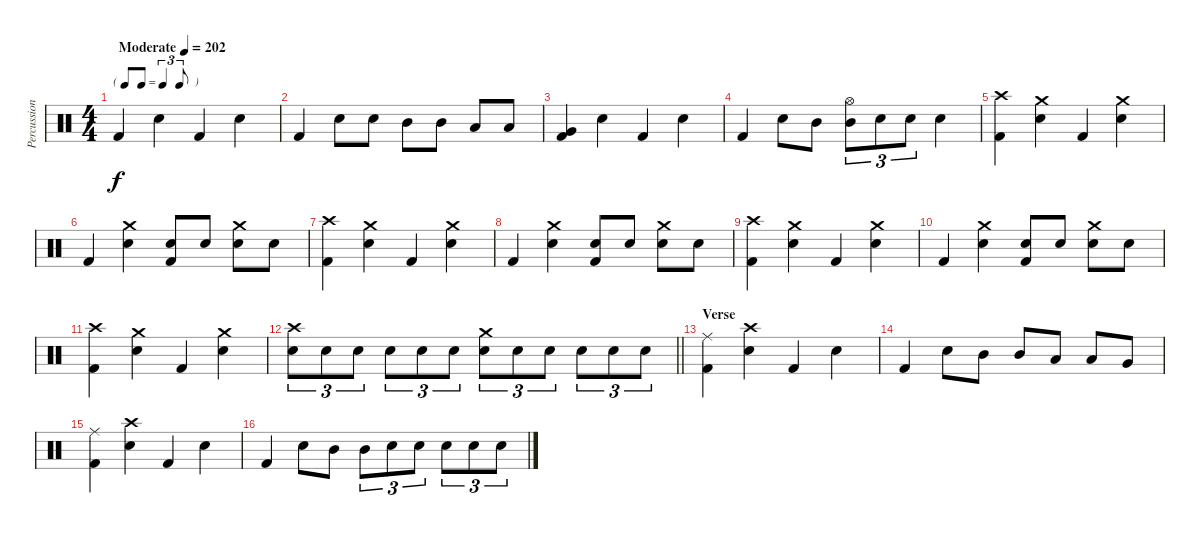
\track ("Percussion" "Percussion") {instrument percussion}
\staff {score}
\articulation defaults
\ts (4 4)
\tf triplet8th
\tempo (202 "Moderate")
\clef neutral
\ks c "Kick (hit) 2".4{dy f} "Electric Snare (hit)".4 "Kick (hit) 2".4 "Electric Snare (hit)".4
|
"Kick (hit) 2".4 "Electric Snare (hit)".8 "Electric Snare (hit)".8 "Mid Tom (hit)".8 "Mid Tom (hit)".8 "Low Tom (hit)".8 "Low Tom (hit)".8 |
("Very Low Tom (hit)" "Kick (hit) 2").4 "Electric Snare (hit)".4 "Kick (hit) 2".4 "Electric Snare (hit)".4 |
"Kick (hit) 2".4 "Electric Snare (hit)".8 "Mid Tom (hit)".8 ("Hi-Hat (open)" "Mid Tom (hit)").8{tu (3 2)} "Electric Snare (hit)".8{tu (3 2)} "Electric Snare (hit)".8{tu (3 2)} "Electric Snare (hit)".4 |
("Crash high (hit)" "Kick (hit) 2").4 ("Crash medium (hit)" "Electric Snare (hit)").4 "Kick (hit) 2".4 ("Crash medium (hit)" "Electric Snare (hit)").4 |
"Kick (hit) 2".4 ("Crash medium (hit)" "Electric Snare (hit)").4 ("Electric Snare (hit)" "Kick (hit) 2").8 "Electric Snare (hit)".8 ("Crash medium (hit)" "Electric Snare (hit)").8 "Electric Snare (hit)".8 |
("Crash high (hit)" "Kick (hit) 2").4 ("Crash medium (hit)" "Electric Snare (hit)").4 "Kick (hit) 2".4 ("Crash medium (hit)" "Electric Snare (hit)").4 |
"Kick (hit) 2".4 ("Crash medium (hit)" "Electric Snare (hit)").4 ("Electric Snare (hit)" "Kick (hit) 2").8 "Electric Snare (hit)".8 ("Crash medium (hit)" "Electric Snare (hit)").8 "Electric Snare (hit)".8 |
("Crash high (hit)" "Kick (hit) 2").4 ("Crash medium (hit)" "Electric Snare (hit)").4 "Kick (hit) 2".4 ("Crash medium (hit)" "Electric Snare (hit)").4 |
"Kick (hit) 2".4 ("Crash medium (hit)" "Electric Snare (hit)").4 ("Electric Snare (hit)" "Kick (hit) 2").8 "Electric Snare (hit)".8 ("Crash medium (hit)" "Electric Snare (hit)").8 "Electric Snare (hit)".8 |
("Crash high (hit)" "Kick (hit) 2").4 ("Crash medium (hit)" "Electric Snare (hit)").4 "Kick (hit) 2".4 ("Crash medium (hit)" "Electric Snare (hit)").4 |
\barLineRight lightlight
("Crash high (hit)" "Electric Snare (hit)").8{tu (3 2)} "Electric Snare (hit)".8{tu (3 2)} "Electric Snare (hit)".8{tu (3 2)} "Electric Snare (hit)".8{tu (3 2)} "Electric Snare (hit)".8{tu (3 2)} "Electric Snare (hit)".8{tu (3 2)} ("Crash medium (hit)" "Electric Snare (hit)").8{tu (3 2)} "Electric Snare (hit)".8{tu (3 2)} "Electric Snare (hit)".8{tu (3 2)} "Electric Snare (hit)".8{tu (3 2)} "Electric Snare (hit)".8{tu (3 2)} "Electric Snare (hit)".8{tu (3 2)} |
\section ("" "Verse")
("Ride (middle)" "Kick (hit) 2").4 ("Crash high (hit)" "Electric Snare (hit)").4 "Kick (hit) 2".4 "Electric Snare (hit)".4 |
"Kick (hit) 2".4 "Electric Snare (hit)".8 "Mid Tom (hit)".8 "Mid Tom (hit)".8 "Low Tom (hit)".8 "Low Tom (hit)".8 "Very Low Tom (hit)".8 |
("Ride (middle)" "Kick (hit) 2").4 ("Crash high (hit)" "Electric Snare (hit)").4 "Kick (hit) 2".4 "Electric Snare (hit)".4 |
"Kick (hit) 2".4 "Electric Snare (hit)".8 "Mid Tom (hit)".8 "Mid Tom (hit)".8{tu (3 2)} "Electric Snare (hit)".8{tu (3 2)} "Electric Snare (hit)".8{tu (3 2)} "Electric Snare (hit)".8{tu (3 2)} "Electric Snare (hit)".8{tu (3 2)} "Electric Snare (hit)".8{tu (3 2)}
